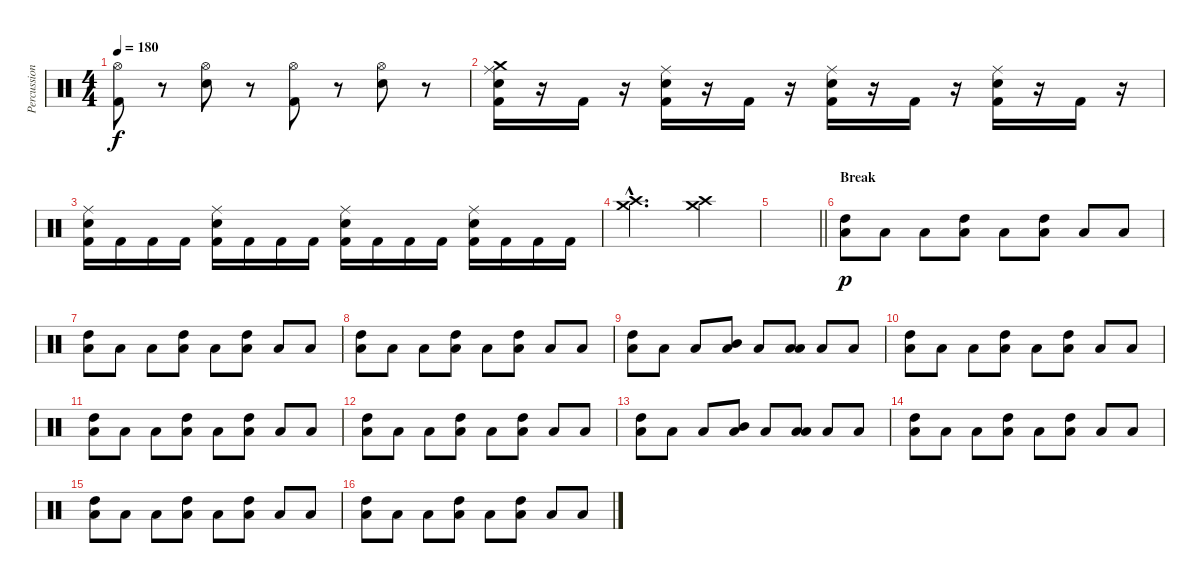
\track ("Percussion" "Percussion") {instrument percussion}
\staff {score}
\articulation defaults
\ts (4 4)
\tempo 180
\clef neutral
\ks c
("Hi-Hat (open)" "Kick (hit) 2").8{dy f} r.8 ("Hi-Hat (open)" "Snare (hit) 2").8 r.8 ("Hi-Hat (open)" "Kick (hit) 2").8 r.8 ("Hi-Hat (open)" "Snare (hit) 2").8 r.8 |
("Crash medium (hit)" "Ride (middle)" "Snare (hit) 2" "Kick (hit) 2").16 r.16 "Kick (hit) 2".16 r.16 ("Ride (middle)" "Snare (hit) 2" "Kick (hit) 2").16 r.16 "Kick (hit) 2".16 r.16 ("Ride (middle)" "Snare (hit) 2" "Kick (hit) 2").16 r.16 "Kick (hit) 2".16 r.16 ("Ride (middle)" "Snare (hit) 2" "Kick (hit) 2").16 r.16 "Kick (hit) 2".16 r.16 |
("Ride (middle)" "Snare (hit) 2" "Kick (hit) 2").16 "Kick (hit) 2".16 "Kick (hit) 2".16 "Kick (hit) 2".16 ("Ride (middle)" "Snare (hit) 2" "Kick (hit) 2").16 "Kick (hit) 2".16 "Kick (hit) 2".16 "Kick (hit) 2".16 ("Ride (middle)" "Snare (hit) 2" "Kick (hit) 2").16 "Kick (hit) 2".16 "Kick (hit) 2".16 "Kick (hit) 2".16 ("Ride (middle)" "Snare (hit) 2" "Kick (hit) 2").16 "Kick (hit) 2".16 "Kick (hit) 2".16 "Kick (hit) 2".16 |
("Crash medium (hit)"{hac} "Crash high (hit)"{hac}).2{d} ("Crash medium (hit)" "Crash high (hit)").4 |
\barLineRight lightlight
|
\section ("" "Break")
("High Tom (hit)" "Low Floor Tom (hit)").8{dy p} "Low Floor Tom (hit)".8 "Low Floor Tom (hit)".8 ("High Tom (hit)" "Low Floor Tom (hit)").8 "Low Floor Tom (hit)".8 ("High Tom (hit)" "Low Floor Tom (hit)").8 "Low Floor Tom (hit)".8 "Low Floor Tom (hit)".8 |
("High Tom (hit)" "Low Floor Tom (hit)").8 "Low Floor Tom (hit)".8 "Low Floor Tom (hit)".8 ("High Tom (hit)" "Low Floor Tom (hit)").8 "Low Floor Tom (hit)".8 ("High Tom (hit)" "Low Floor Tom (hit)").8 "Low Floor Tom (hit)".8 "Low Floor Tom (hit)".8 |
("High Tom (hit)" "Low Floor Tom (hit)").8 "Low Floor Tom (hit)".8 "Low Floor Tom (hit)".8 ("High Tom (hit)" "Low Floor Tom (hit)").8 "Low Floor Tom (hit)".8 ("High Tom (hit)" "Low Floor Tom (hit)").8 "Low Floor Tom (hit)".8 "Low Floor Tom (hit)".8 |
("High Tom (hit)" "Low Floor Tom (hit)").8 "Low Floor Tom (hit)".8 "Low Floor Tom (hit)".8 ("Mid Tom (hit)" "Low Floor Tom (hit)").8 "Low Floor Tom (hit)".8 ("Low Tom (hit)" "Low Floor Tom (hit)").8 "Low Floor Tom (hit)".8 "Low Floor Tom (hit)".8 |
("High Tom (hit)" "Low Floor Tom (hit)").8 "Low Floor Tom (hit)".8 "Low Floor Tom (hit)".8 ("High Tom (hit)" "Low Floor Tom (hit)").8 "Low Floor Tom (hit)".8 ("High Tom (hit)" "Low Floor Tom (hit)").8 "Low Floor Tom (hit)".8 "Low Floor Tom (hit)".8 |
("High Tom (hit)" "Low Floor Tom (hit)").8 "Low Floor Tom (hit)".8 "Low Floor Tom (hit)".8 ("High Tom (hit)" "Low Floor Tom (hit)").8 "Low Floor Tom (hit)".8 ("High Tom (hit)" "Low Floor Tom (hit)").8 "Low Floor Tom (hit)".8 "Low Floor Tom (hit)".8 |
("High Tom (hit)" "Low Floor Tom (hit)").8 "Low Floor Tom (hit)".8 "Low Floor Tom (hit)".8 ("High Tom (hit)" "Low Floor Tom (hit)").8 "Low Floor Tom (hit)".8 ("High Tom (hit)" "Low Floor Tom (hit)").8 "Low Floor Tom (hit)".8 "Low Floor Tom (hit)".8 |
("High Tom (hit)" "Low Floor Tom (hit)").8 "Low Floor Tom (hit)".8 "Low Floor Tom (hit)".8 ("Mid Tom (hit)" "Low Floor Tom (hit)").8 "Low Floor Tom (hit)".8 ("Low Tom (hit)" "Low Floor Tom (hit)").8 "Low Floor Tom (hit)".8 "Low Floor Tom (hit)".8 |
("High Tom (hit)" "Low Floor Tom (hit)").8 "Low Floor Tom (hit)".8 "Low Floor Tom (hit)".8 ("High Tom (hit)" "Low Floor Tom (hit)").8 "Low Floor Tom (hit)".8 ("High Tom (hit)" "Low Floor Tom (hit)").8 "Low Floor Tom (hit)".8 "Low Floor Tom (hit)".8 |
("High Tom (hit)" "Low Floor Tom (hit)").8 "Low Floor Tom (hit)".8 "Low Floor Tom (hit)".8 ("High Tom (hit)" "Low Floor Tom (hit)").8 "Low Floor Tom (hit)".8 ("High Tom (hit)" "Low Floor Tom (hit)").8 "Low Floor Tom (hit)".8 "Low Floor Tom (hit)".8 |
("High Tom (hit)" "Low Floor Tom (hit)").8 "Low Floor Tom (hit)".8 "Low Floor Tom (hit)".8 ("High Tom (hit)" "Low Floor Tom (hit)").8 "Low Floor Tom (hit)".8 ("High Tom (hit)" "Low Floor Tom (hit)").8 "Low Floor Tom (hit)".8 "Low Floor Tom (hit)".8
